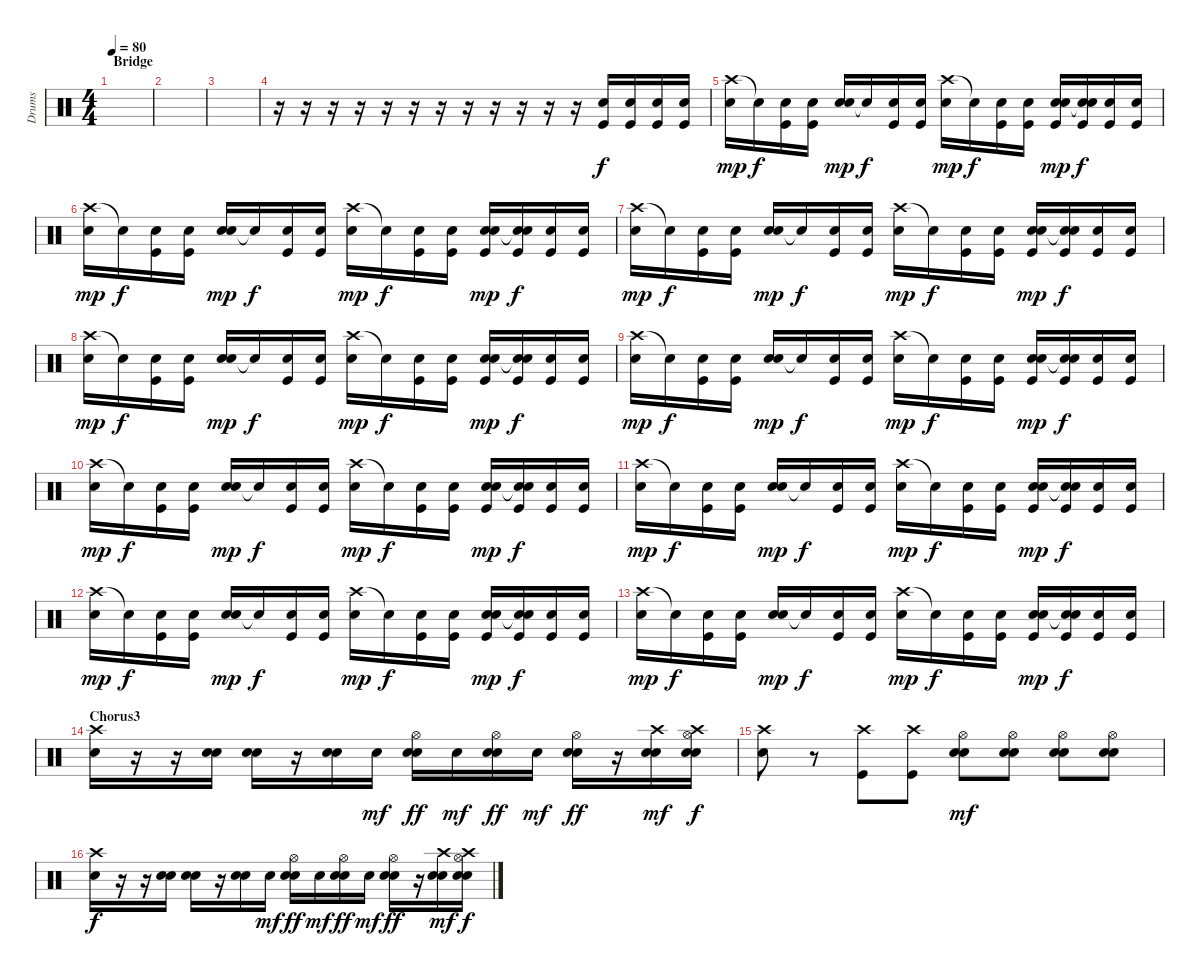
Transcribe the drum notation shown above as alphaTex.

\track ("Drums" "Drums") {instrument percussion}
\staff {score}
\articulation defaults
\ts (4 4)
\section ("" "Bridge")
\tempo 80
\clef neutral
\ks c
|
|
|
r.16 r.16 r.16 r.16 r.16 r.16 r.16 r.16 r.16 r.16 r.16 r.16 ("Kick (hit)" "Snare (hit) 2").16 ("Kick (hit)" "Snare (hit) 2").16 ("Kick (hit)" "Snare (hit) 2").16 ("Kick (hit)" "Snare (hit) 2").16 |
("Crash high (hit)" "Snare (hit) 2").16{dy mp} "Snare (hit)"{t}.16{dy f} ("Kick (hit)" "Snare (hit) 2").16 ("Kick (hit)" "Snare (hit) 2").16 ("Electric Snare (hit)" "Snare (hit) 2").16{dy mp} "Snare (hit)"{t}.16{dy f} ("Kick (hit)" "Snare (hit) 2").16 ("Kick (hit)" "Snare (hit) 2").16 ("Crash high (hit)" "Snare (hit) 2").16{dy mp} "Snare (hit)"{t}.16{dy f} ("Kick (hit)" "Snare (hit) 2").16 ("Kick (hit)" "Snare (hit) 2").16 ("Electric Snare (hit)" "Kick (hit)" "Snare (hit) 2").16{dy mp} ("Snare (hit)"{t} "Kick (hit)" "Snare (hit) 2").16{dy f} ("Kick (hit)" "Snare (hit) 2").16 ("Kick (hit)" "Snare (hit) 2").16 |
("Crash high (hit)" "Snare (hit) 2").16{dy mp} "Snare (hit)"{t}.16{dy f} ("Kick (hit)" "Snare (hit) 2").16 ("Kick (hit)" "Snare (hit) 2").16 ("Electric Snare (hit)" "Snare (hit) 2").16{dy mp} "Snare (hit)"{t}.16{dy f} ("Kick (hit)" "Snare (hit) 2").16 ("Kick (hit)" "Snare (hit) 2").16 ("Crash high (hit)" "Snare (hit) 2").16{dy mp} "Snare (hit)"{t}.16{dy f} ("Kick (hit)" "Snare (hit) 2").16 ("Kick (hit)" "Snare (hit) 2").16 ("Electric Snare (hit)" "Kick (hit)" "Snare (hit) 2").16{dy mp} ("Snare (hit)"{t} "Kick (hit)" "Snare (hit) 2").16{dy f} ("Kick (hit)" "Snare (hit) 2").16 ("Kick (hit)" "Snare (hit) 2").16 |
("Crash high (hit)" "Snare (hit) 2").16{dy mp} "Snare (hit)"{t}.16{dy f} ("Kick (hit)" "Snare (hit) 2").16 ("Kick (hit)" "Snare (hit) 2").16 ("Electric Snare (hit)" "Snare (hit) 2").16{dy mp} "Snare (hit)"{t}.16{dy f} ("Kick (hit)" "Snare (hit) 2").16 ("Kick (hit)" "Snare (hit) 2").16 ("Crash high (hit)" "Snare (hit) 2").16{dy mp} "Snare (hit)"{t}.16{dy f} ("Kick (hit)" "Snare (hit) 2").16 ("Kick (hit)" "Snare (hit) 2").16 ("Electric Snare (hit)" "Kick (hit)" "Snare (hit) 2").16{dy mp} ("Snare (hit)"{t} "Kick (hit)" "Snare (hit) 2").16{dy f} ("Kick (hit)" "Snare (hit) 2").16 ("Kick (hit)" "Snare (hit) 2").16 |
("Crash high (hit)" "Snare (hit) 2").16{dy mp} "Snare (hit)"{t}.16{dy f} ("Kick (hit)" "Snare (hit) 2").16 ("Kick (hit)" "Snare (hit) 2").16 ("Electric Snare (hit)" "Snare (hit) 2").16{dy mp} "Snare (hit)"{t}.16{dy f} ("Kick (hit)" "Snare (hit) 2").16 ("Kick (hit)" "Snare (hit) 2").16 ("Crash high (hit)" "Snare (hit) 2").16{dy mp} "Snare (hit)"{t}.16{dy f} ("Kick (hit)" "Snare (hit) 2").16 ("Kick (hit)" "Snare (hit) 2").16 ("Electric Snare (hit)" "Kick (hit)" "Snare (hit) 2").16{dy mp} ("Snare (hit)"{t} "Kick (hit)" "Snare (hit) 2").16{dy f} ("Kick (hit)" "Snare (hit) 2").16 ("Kick (hit)" "Snare (hit) 2").16 |
("Crash high (hit)" "Snare (hit) 2").16{dy mp} "Snare (hit)"{t}.16{dy f} ("Kick (hit)" "Snare (hit) 2").16 ("Kick (hit)" "Snare (hit) 2").16 ("Electric Snare (hit)" "Snare (hit) 2").16{dy mp} "Snare (hit)"{t}.16{dy f} ("Kick (hit)" "Snare (hit) 2").16 ("Kick (hit)" "Snare (hit) 2").16 ("Crash high (hit)" "Snare (hit) 2").16{dy mp} "Snare (hit)"{t}.16{dy f} ("Kick (hit)" "Snare (hit) 2").16 ("Kick (hit)" "Snare (hit) 2").16 ("Electric Snare (hit)" "Kick (hit)" "Snare (hit) 2").16{dy mp} ("Snare (hit)"{t} "Kick (hit)" "Snare (hit) 2").16{dy f} ("Kick (hit)" "Snare (hit) 2").16 ("Kick (hit)" "Snare (hit) 2").16 |
("Crash high (hit)" "Snare (hit) 2").16{dy mp} "Snare (hit)"{t}.16{dy f} ("Kick (hit)" "Snare (hit) 2").16 ("Kick (hit)" "Snare (hit) 2").16 ("Electric Snare (hit)" "Snare (hit) 2").16{dy mp} "Snare (hit)"{t}.16{dy f} ("Kick (hit)" "Snare (hit) 2").16 ("Kick (hit)" "Snare (hit) 2").16 ("Crash high (hit)" "Snare (hit) 2").16{dy mp} "Snare (hit)"{t}.16{dy f} ("Kick (hit)" "Snare (hit) 2").16 ("Kick (hit)" "Snare (hit) 2").16 ("Electric Snare (hit)" "Kick (hit)" "Snare (hit) 2").16{dy mp} ("Snare (hit)"{t} "Kick (hit)" "Snare (hit) 2").16{dy f} ("Kick (hit)" "Snare (hit) 2").16 ("Kick (hit)" "Snare (hit) 2").16 |
("Crash high (hit)" "Snare (hit) 2").16{dy mp} "Snare (hit)"{t}.16{dy f} ("Kick (hit)" "Snare (hit) 2").16 ("Kick (hit)" "Snare (hit) 2").16 ("Electric Snare (hit)" "Snare (hit) 2").16{dy mp} "Snare (hit)"{t}.16{dy f} ("Kick (hit)" "Snare (hit) 2").16 ("Kick (hit)" "Snare (hit) 2").16 ("Crash high (hit)" "Snare (hit) 2").16{dy mp} "Snare (hit)"{t}.16{dy f} ("Kick (hit)" "Snare (hit) 2").16 ("Kick (hit)" "Snare (hit) 2").16 ("Electric Snare (hit)" "Kick (hit)" "Snare (hit) 2").16{dy mp} ("Snare (hit)"{t} "Kick (hit)" "Snare (hit) 2").16{dy f} ("Kick (hit)" "Snare (hit) 2").16 ("Kick (hit)" "Snare (hit) 2").16 |
("Crash high (hit)" "Snare (hit) 2").16{dy mp} "Snare (hit)"{t}.16{dy f} ("Kick (hit)" "Snare (hit) 2").16 ("Kick (hit)" "Snare (hit) 2").16 ("Electric Snare (hit)" "Snare (hit) 2").16{dy mp} "Snare (hit)"{t}.16{dy f} ("Kick (hit)" "Snare (hit) 2").16 ("Kick (hit)" "Snare (hit) 2").16 ("Crash high (hit)" "Snare (hit) 2").16{dy mp} "Snare (hit)"{t}.16{dy f} ("Kick (hit)" "Snare (hit) 2").16 ("Kick (hit)" "Snare (hit) 2").16 ("Electric Snare (hit)" "Kick (hit)" "Snare (hit) 2").16{dy mp} ("Snare (hit)"{t} "Kick (hit)" "Snare (hit) 2").16{dy f} ("Kick (hit)" "Snare (hit) 2").16 ("Kick (hit)" "Snare (hit) 2").16 |
("Crash high (hit)" "Snare (hit) 2").16{dy mp} "Snare (hit)"{t}.16{dy f} ("Kick (hit)" "Snare (hit) 2").16 ("Kick (hit)" "Snare (hit) 2").16 ("Electric Snare (hit)" "Snare (hit) 2").16{dy mp} "Snare (hit)"{t}.16{dy f} ("Kick (hit)" "Snare (hit) 2").16 ("Kick (hit)" "Snare (hit) 2").16 ("Crash high (hit)" "Snare (hit) 2").16{dy mp} "Snare (hit)"{t}.16{dy f} ("Kick (hit)" "Snare (hit) 2").16 ("Kick (hit)" "Snare (hit) 2").16 ("Electric Snare (hit)" "Kick (hit)" "Snare (hit) 2").16{dy mp} ("Snare (hit)"{t} "Kick (hit)" "Snare (hit) 2").16{dy f} ("Kick (hit)" "Snare (hit) 2").16 ("Kick (hit)" "Snare (hit) 2").16 |
\section ("" "Chorus3")
("Crash high (hit)" "Snare (hit) 2").16 r.16 r.16 ("Electric Snare (hit)" "Snare (hit) 2").16 ("Electric Snare (hit)" "Snare (hit) 2").16 r.16 ("Electric Snare (hit)" "Snare (hit) 2").16 "Snare (hit) 2".16{dy mf} ("Hi-Hat (open)" "Electric Snare (hit)" "Snare (hit) 2").16{dy ff} "Snare (hit) 2".16{dy mf} ("Hi-Hat (open)" "Electric Snare (hit)" "Snare (hit) 2").16{dy ff} "Snare (hit) 2".16{dy mf} ("Hi-Hat (open)" "Electric Snare (hit)" "Snare (hit) 2").16{dy ff} r.16 ("Electric Snare (hit)" "Crash high (hit)" "Snare (hit) 2").16{dy mf} ("Hi-Hat (open)" "Crash high (hit)" "Electric Snare (hit)" "Snare (hit) 2").16{dy f} |
("Crash high (hit)" "Snare (hit) 2").8 r.8 ("Kick (hit)" "Crash high (hit)").8 ("Kick (hit)" "Crash high (hit)").8 ("Hi-Hat (open)" "Electric Snare (hit)" "Snare (hit) 2").8{dy mf} ("Hi-Hat (open)" "Electric Snare (hit)" "Snare (hit) 2").8 ("Hi-Hat (open)" "Electric Snare (hit)" "Snare (hit) 2").8 ("Hi-Hat (open)" "Electric Snare (hit)" "Snare (hit) 2").8 |
("Crash high (hit)" "Snare (hit) 2").16{dy f} r.16 r.16 ("Electric Snare (hit)" "Snare (hit) 2").16 ("Electric Snare (hit)" "Snare (hit) 2").16 r.16 ("Electric Snare (hit)" "Snare (hit) 2").16 "Snare (hit) 2".16{dy mf} ("Hi-Hat (open)" "Electric Snare (hit)" "Snare (hit) 2").16{dy ff} "Snare (hit) 2".16{dy mf} ("Hi-Hat (open)" "Electric Snare (hit)" "Snare (hit) 2").16{dy ff} "Snare (hit) 2".16{dy mf} ("Hi-Hat (open)" "Electric Snare (hit)" "Snare (hit) 2").16{dy ff} r.16 ("Electric Snare (hit)" "Crash high (hit)" "Snare (hit) 2").16{dy mf} ("Hi-Hat (open)" "Crash high (hit)" "Electric Snare (hit)" "Snare (hit) 2").16{dy f}
